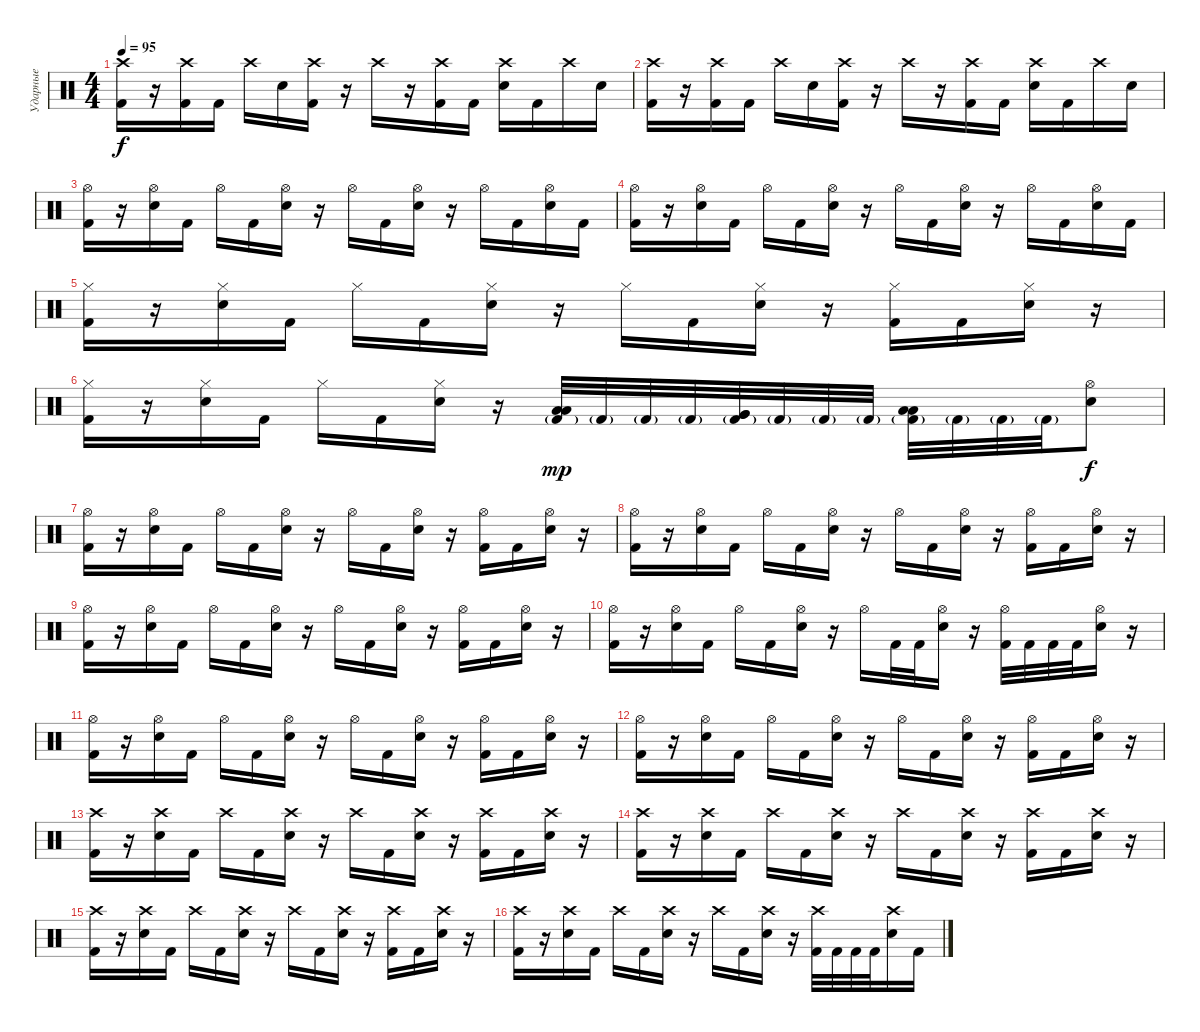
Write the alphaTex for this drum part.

\track ("Ударные" "Ударные") {instrument percussion}
\staff {score}
\articulation defaults
\ts (4 4)
\tempo 95
\clef neutral
\ks c
("Crash high (hit)" "Kick (hit) 2").16{dy f} r.16 ("Crash high (hit)" "Kick (hit) 2").16 "Kick (hit) 2".16 "Crash high (hit)".16 "Electric Snare (hit)".16 ("Crash high (hit)" "Kick (hit) 2").16 r.16 "Crash high (hit)".16 r.16 ("Crash high (hit)" "Kick (hit) 2").16 "Kick (hit) 2".16 ("Crash high (hit)" "Electric Snare (hit)").16 "Kick (hit) 2".16 "Crash high (hit)".16 "Electric Snare (hit)".16 |
("Crash high (hit)" "Kick (hit) 2").16 r.16 ("Crash high (hit)" "Kick (hit) 2").16 "Kick (hit) 2".16 "Crash high (hit)".16 "Electric Snare (hit)".16 ("Crash high (hit)" "Kick (hit) 2").16 r.16 "Crash high (hit)".16 r.16 ("Crash high (hit)" "Kick (hit) 2").16 "Kick (hit) 2".16 ("Crash high (hit)" "Electric Snare (hit)").16 "Kick (hit) 2".16 "Crash high (hit)".16 "Electric Snare (hit)".16 |
("Hi-Hat (open)" "Kick (hit) 2").16 r.16 ("Hi-Hat (open)" "Electric Snare (hit)").16 "Kick (hit) 2".16 "Hi-Hat (open)".16 "Kick (hit) 2".16 ("Hi-Hat (open)" "Electric Snare (hit)").16 r.16 "Hi-Hat (open)".16 "Kick (hit) 2".16 ("Hi-Hat (open)" "Electric Snare (hit)").16 r.16 "Hi-Hat (open)".16 "Kick (hit) 2".16 ("Hi-Hat (open)" "Electric Snare (hit)").16 "Kick (hit) 2".16 |
("Hi-Hat (open)" "Kick (hit) 2").16 r.16 ("Hi-Hat (open)" "Electric Snare (hit)").16 "Kick (hit) 2".16 "Hi-Hat (open)".16 "Kick (hit) 2".16 ("Hi-Hat (open)" "Electric Snare (hit)").16 r.16 "Hi-Hat (open)".16 "Kick (hit) 2".16 ("Hi-Hat (open)" "Electric Snare (hit)").16 r.16 "Hi-Hat (open)".16 "Kick (hit) 2".16 ("Hi-Hat (open)" "Electric Snare (hit)").16 "Kick (hit) 2".16 |
("Hi-Hat (closed)" "Kick (hit) 2").16 r.16 ("Hi-Hat (closed)" "Electric Snare (hit)").16 "Kick (hit) 2".16 "Hi-Hat (closed)".16 "Kick (hit) 2".16 ("Hi-Hat (closed)" "Electric Snare (hit)").16 r.16 "Hi-Hat (closed)".16 "Kick (hit) 2".16 ("Hi-Hat (closed)" "Electric Snare (hit)").16 r.16 ("Hi-Hat (closed)" "Kick (hit) 2").16 "Kick (hit) 2".16 ("Hi-Hat (closed)" "Electric Snare (hit)").16 r.16 |
("Hi-Hat (closed)" "Kick (hit) 2").16 r.16 ("Hi-Hat (closed)" "Electric Snare (hit)").16 "Kick (hit) 2".16 "Hi-Hat (closed)".16 "Kick (hit) 2".16 ("Hi-Hat (closed)" "Electric Snare (hit)").16 r.16 ("Low Tom (hit)" "Low Tom (hit)" "Kick (hit) 2"{g}).32{dy mp} "Kick (hit) 2"{g}.32 "Kick (hit) 2"{g}.32 "Kick (hit) 2"{g}.32 ("Very Low Tom (hit)" "Very Low Tom (hit)" "Kick (hit) 2"{g}).32 "Kick (hit) 2"{g}.32 "Kick (hit) 2"{g}.32 "Kick (hit) 2"{g}.32 ("Low Floor Tom (hit)" "Low Floor Tom (hit)" "Kick (hit) 2"{g}).32 "Kick (hit) 2"{g}.32 "Kick (hit) 2"{g}.32 "Kick (hit) 2"{g}.32 ("Hi-Hat (open)" "Electric Snare (hit)").8{dy f} |
("Hi-Hat (open)" "Kick (hit) 2").16 r.16 ("Hi-Hat (open)" "Electric Snare (hit)").16 "Kick (hit) 2".16 "Hi-Hat (open)".16 "Kick (hit) 2".16 ("Hi-Hat (open)" "Electric Snare (hit)").16 r.16 "Hi-Hat (open)".16 "Kick (hit) 2".16 ("Hi-Hat (open)" "Electric Snare (hit)").16 r.16 ("Hi-Hat (open)" "Kick (hit) 2").16 "Kick (hit) 2".16 ("Hi-Hat (open)" "Electric Snare (hit)").16 r.16 |
("Hi-Hat (open)" "Kick (hit) 2").16 r.16 ("Hi-Hat (open)" "Electric Snare (hit)").16 "Kick (hit) 2".16 "Hi-Hat (open)".16 "Kick (hit) 2".16 ("Hi-Hat (open)" "Electric Snare (hit)").16 r.16 "Hi-Hat (open)".16 "Kick (hit) 2".16 ("Hi-Hat (open)" "Electric Snare (hit)").16 r.16 ("Hi-Hat (open)" "Kick (hit) 2").16 "Kick (hit) 2".16 ("Hi-Hat (open)" "Electric Snare (hit)").16 r.16 |
("Hi-Hat (open)" "Kick (hit) 2").16 r.16 ("Hi-Hat (open)" "Electric Snare (hit)").16 "Kick (hit) 2".16 "Hi-Hat (open)".16 "Kick (hit) 2".16 ("Hi-Hat (open)" "Electric Snare (hit)").16 r.16 "Hi-Hat (open)".16 "Kick (hit) 2".16 ("Hi-Hat (open)" "Electric Snare (hit)").16 r.16 ("Hi-Hat (open)" "Kick (hit) 2").16 "Kick (hit) 2".16 ("Hi-Hat (open)" "Electric Snare (hit)").16 r.16 |
("Hi-Hat (open)" "Kick (hit) 2").16 r.16 ("Hi-Hat (open)" "Electric Snare (hit)").16 "Kick (hit) 2".16 "Hi-Hat (open)".16 "Kick (hit) 2".16 ("Hi-Hat (open)" "Electric Snare (hit)").16 r.16 "Hi-Hat (open)".16 "Kick (hit) 2".32 "Kick (hit) 2".32 ("Hi-Hat (open)" "Electric Snare (hit)").16 r.16 ("Hi-Hat (open)" "Kick (hit) 2").32 "Kick (hit) 2".32 "Kick (hit) 2".32 "Kick (hit) 2".32 ("Hi-Hat (open)" "Electric Snare (hit)").16 r.16 |
("Hi-Hat (open)" "Kick (hit) 2").16 r.16 ("Hi-Hat (open)" "Electric Snare (hit)").16 "Kick (hit) 2".16 "Hi-Hat (open)".16 "Kick (hit) 2".16 ("Hi-Hat (open)" "Electric Snare (hit)").16 r.16 "Hi-Hat (open)".16 "Kick (hit) 2".16 ("Hi-Hat (open)" "Electric Snare (hit)").16 r.16 ("Hi-Hat (open)" "Kick (hit) 2").16 "Kick (hit) 2".16 ("Hi-Hat (open)" "Electric Snare (hit)").16 r.16 |
("Hi-Hat (open)" "Kick (hit) 2").16 r.16 ("Hi-Hat (open)" "Electric Snare (hit)").16 "Kick (hit) 2".16 "Hi-Hat (open)".16 "Kick (hit) 2".16 ("Hi-Hat (open)" "Electric Snare (hit)").16 r.16 "Hi-Hat (open)".16 "Kick (hit) 2".16 ("Hi-Hat (open)" "Electric Snare (hit)").16 r.16 ("Hi-Hat (open)" "Kick (hit) 2").16 "Kick (hit) 2".16 ("Hi-Hat (open)" "Electric Snare (hit)").16 r.16 |
("Crash high (hit)" "Kick (hit) 2").16 r.16 ("Crash high (hit)" "Electric Snare (hit)").16 "Kick (hit) 2".16 "Crash high (hit)".16 "Kick (hit) 2".16 ("Crash high (hit)" "Electric Snare (hit)").16 r.16 "Crash high (hit)".16 "Kick (hit) 2".16 ("Crash high (hit)" "Electric Snare (hit)").16 r.16 ("Crash high (hit)" "Kick (hit) 2").16 "Kick (hit) 2".16 ("Crash high (hit)" "Electric Snare (hit)").16 r.16 |
("Crash high (hit)" "Kick (hit) 2").16 r.16 ("Crash high (hit)" "Electric Snare (hit)").16 "Kick (hit) 2".16 "Crash high (hit)".16 "Kick (hit) 2".16 ("Crash high (hit)" "Electric Snare (hit)").16 r.16 "Crash high (hit)".16 "Kick (hit) 2".16 ("Crash high (hit)" "Electric Snare (hit)").16 r.16 ("Crash high (hit)" "Kick (hit) 2").16 "Kick (hit) 2".16 ("Crash high (hit)" "Electric Snare (hit)").16 r.16 |
("Crash high (hit)" "Kick (hit) 2").16 r.16 ("Crash high (hit)" "Electric Snare (hit)").16 "Kick (hit) 2".16 "Crash high (hit)".16 "Kick (hit) 2".16 ("Crash high (hit)" "Electric Snare (hit)").16 r.16 "Crash high (hit)".16 "Kick (hit) 2".16 ("Crash high (hit)" "Electric Snare (hit)").16 r.16 ("Crash high (hit)" "Kick (hit) 2").16 "Kick (hit) 2".16 ("Crash high (hit)" "Electric Snare (hit)").16 r.16 |
("Crash high (hit)" "Kick (hit) 2").16 r.16 ("Crash high (hit)" "Electric Snare (hit)").16 "Kick (hit) 2".16 "Crash high (hit)".16 "Kick (hit) 2".16 ("Crash high (hit)" "Electric Snare (hit)").16 r.16 "Crash high (hit)".16 "Kick (hit) 2".16 ("Crash high (hit)" "Electric Snare (hit)").16 r.16 ("Crash high (hit)" "Kick (hit) 2").32 "Kick (hit) 2".32 "Kick (hit) 2".32 "Kick (hit) 2".32 ("Crash high (hit)" "Electric Snare (hit)").16 "Kick (hit) 2".16
